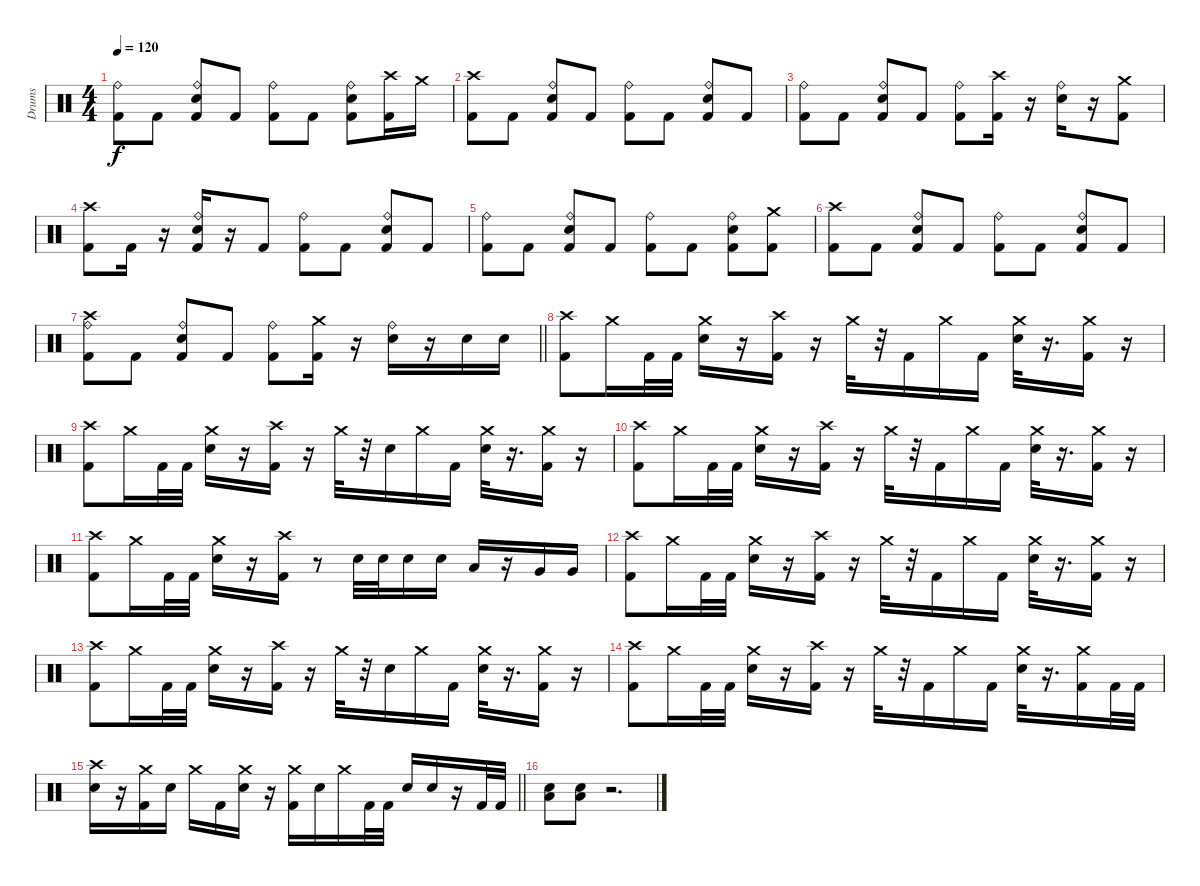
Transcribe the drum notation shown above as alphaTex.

\track ("Drums" "Drums") {instrument percussion}
\staff {score}
\articulation defaults
\ts (4 4)
\tempo 120
\clef neutral
\ks c
("Kick (hit) 2" "Ride (bell)").8{dy f} "Kick (hit) 2".8 ("Kick (hit) 2" "Snare (hit) 2" "Ride (bell)").8 "Kick (hit) 2".8 ("Kick (hit) 2" "Ride (bell)").8 "Kick (hit) 2".8 ("Kick (hit) 2" "Snare (hit) 2" "Ride (bell)").8 ("Kick (hit) 2" "Crash high (hit)").16 "Crash medium (hit)".16 |
("Kick (hit) 2" "Crash high (hit)").8 "Kick (hit) 2".8 ("Kick (hit) 2" "Snare (hit) 2" "Ride (bell)").8 "Kick (hit) 2".8 ("Kick (hit) 2" "Ride (bell)").8 "Kick (hit) 2".8 ("Kick (hit) 2" "Snare (hit) 2" "Ride (bell)").8 "Kick (hit) 2".8 |
("Kick (hit) 2" "Ride (bell)").8 "Kick (hit) 2".8 ("Kick (hit) 2" "Snare (hit) 2" "Ride (bell)").8 "Kick (hit) 2".8 ("Kick (hit) 2" "Ride (bell)").8 ("Kick (hit) 2" "Crash high (hit)").16 r.16 ("Snare (hit) 2" "Ride (bell)").16 r.16 ("Kick (hit) 2" "Crash medium (hit)").8 |
("Kick (hit) 2" "Crash high (hit)").8 "Kick (hit) 2".16 r.16 ("Kick (hit) 2" "Snare (hit) 2" "Ride (bell)").16 r.16 "Kick (hit) 2".8 ("Kick (hit) 2" "Ride (bell)").8 "Kick (hit) 2".8 ("Kick (hit) 2" "Snare (hit) 2" "Ride (bell)").8 "Kick (hit) 2".8 |
("Kick (hit) 2" "Ride (bell)").8 "Kick (hit) 2".8 ("Kick (hit) 2" "Snare (hit) 2" "Ride (bell)").8 "Kick (hit) 2".8 ("Kick (hit) 2" "Ride (bell)").8 "Kick (hit) 2".8 ("Kick (hit) 2" "Snare (hit) 2" "Ride (bell)").8 ("Kick (hit) 2" "Crash medium (hit)").8 |
("Kick (hit) 2" "Crash high (hit)").8 "Kick (hit) 2".8 ("Kick (hit) 2" "Snare (hit) 2" "Ride (bell)").8 "Kick (hit) 2".8 ("Kick (hit) 2" "Ride (bell)").8 "Kick (hit) 2".8 ("Kick (hit) 2" "Snare (hit) 2" "Ride (bell)").8 "Kick (hit) 2".8 |
\barLineRight lightlight
("Kick (hit) 2" "Crash high (hit)" "Ride (bell)").8 "Kick (hit) 2".8 ("Kick (hit) 2" "Snare (hit) 2" "Ride (bell)").8 "Kick (hit) 2".8 ("Kick (hit) 2" "Ride (bell)").8 ("Kick (hit) 2" "Crash medium (hit)").16 r.16 ("Snare (hit) 2" "Ride (bell)").16 r.16 "Snare (hit) 2".16 "Snare (hit) 2".16 |
\section ("" " ")
("Kick (hit) 2" "Crash high (hit)").8 "Crash medium (hit)".16 "Kick (hit) 2".32 "Kick (hit) 2".32 ("Snare (hit) 2" "Crash medium (hit)").16 r.16 ("Kick (hit) 2" "Crash high (hit)").16 r.16 "Crash medium (hit)".32 r.32 "Kick (hit) 2".16 "Crash medium (hit)".16 "Kick (hit) 2".16 ("Snare (hit) 2" "Crash medium (hit)").32 r.16{d} ("Kick (hit) 2" "Crash medium (hit)").16 r.16 |
("Kick (hit) 2" "Crash high (hit)").8 "Crash medium (hit)".16 "Kick (hit) 2".32 "Kick (hit) 2".32 ("Snare (hit) 2" "Crash medium (hit)").16 r.16 ("Kick (hit) 2" "Crash high (hit)").16 r.16 "Crash medium (hit)".32 r.32 "Snare (hit) 2".16 "Crash medium (hit)".16 "Kick (hit) 2".16 ("Snare (hit) 2" "Crash medium (hit)").32 r.16{d} ("Kick (hit) 2" "Crash medium (hit)").16 r.16 |
("Kick (hit) 2" "Crash high (hit)").8 "Crash medium (hit)".16 "Kick (hit) 2".32 "Kick (hit) 2".32 ("Snare (hit) 2" "Crash medium (hit)").16 r.16 ("Kick (hit) 2" "Crash high (hit)").16 r.16 "Crash medium (hit)".32 r.32 "Kick (hit) 2".16 "Crash medium (hit)".16 "Kick (hit) 2".16 ("Snare (hit) 2" "Crash medium (hit)").32 r.16{d} ("Kick (hit) 2" "Crash medium (hit)").16 r.16 |
("Kick (hit) 2" "Crash high (hit)").8 "Crash medium (hit)".16 "Kick (hit) 2".32 "Kick (hit) 2".32 ("Snare (hit) 2" "Crash medium (hit)").16 r.16 ("Kick (hit) 2" "Crash high (hit)").16 r.8 "Snare (hit) 2".32 "Snare (hit) 2".32 "Snare (hit) 2".16 "Snare (hit) 2".16 "Low Tom (hit)".16 r.16 "Very Low Tom (hit)".16 "Very Low Tom (hit)".16 |
("Kick (hit) 2" "Crash high (hit)").8 "Crash medium (hit)".16 "Kick (hit) 2".32 "Kick (hit) 2".32 ("Snare (hit) 2" "Crash medium (hit)").16 r.16 ("Kick (hit) 2" "Crash high (hit)").16 r.16 "Crash medium (hit)".32 r.32 "Kick (hit) 2".16 "Crash medium (hit)".16 "Kick (hit) 2".16 ("Snare (hit) 2" "Crash medium (hit)").32 r.16{d} ("Kick (hit) 2" "Crash medium (hit)").16 r.16 |
("Kick (hit) 2" "Crash high (hit)").8 "Crash medium (hit)".16 "Kick (hit) 2".32 "Kick (hit) 2".32 ("Snare (hit) 2" "Crash medium (hit)").16 r.16 ("Kick (hit) 2" "Crash high (hit)").16 r.16 "Crash medium (hit)".32 r.32 "Snare (hit) 2".16 "Crash medium (hit)".16 "Kick (hit) 2".16 ("Snare (hit) 2" "Crash medium (hit)").32 r.16{d} ("Kick (hit) 2" "Crash medium (hit)").16 r.16 |
("Kick (hit) 2" "Crash high (hit)").8 "Crash medium (hit)".16 "Kick (hit) 2".32 "Kick (hit) 2".32 ("Snare (hit) 2" "Crash medium (hit)").16 r.16 ("Kick (hit) 2" "Crash high (hit)").16 r.16 "Crash medium (hit)".32 r.32 "Kick (hit) 2".16 "Crash medium (hit)".16 "Kick (hit) 2".16 ("Snare (hit) 2" "Crash medium (hit)").32 r.16{d} ("Kick (hit) 2" "Crash medium (hit)").16 "Kick (hit) 2".32 "Kick (hit) 2".32 |
\barLineRight lightlight
("Snare (hit) 2" "Crash high (hit)").16 r.16 ("Kick (hit) 2" "Crash medium (hit)").16 "Snare (hit) 2".16 "Crash medium (hit)".16 "Kick (hit) 2".16 ("Snare (hit) 2" "Crash medium (hit)").16 r.16 ("Kick (hit) 2" "Crash medium (hit)").16 "Snare (hit) 2".16 "Crash medium (hit)".16 "Kick (hit) 2".32 "Kick (hit) 2".32 "Snare (hit) 2".16 "Snare (hit) 2".16 r.16 "Kick (hit) 2".32 "Kick (hit) 2".32 |
\section ("" " ")
("Snare (hit) 2" "Low Floor Tom (hit)").8 ("Snare (hit) 2" "Low Floor Tom (hit)").8 r.2{d}
